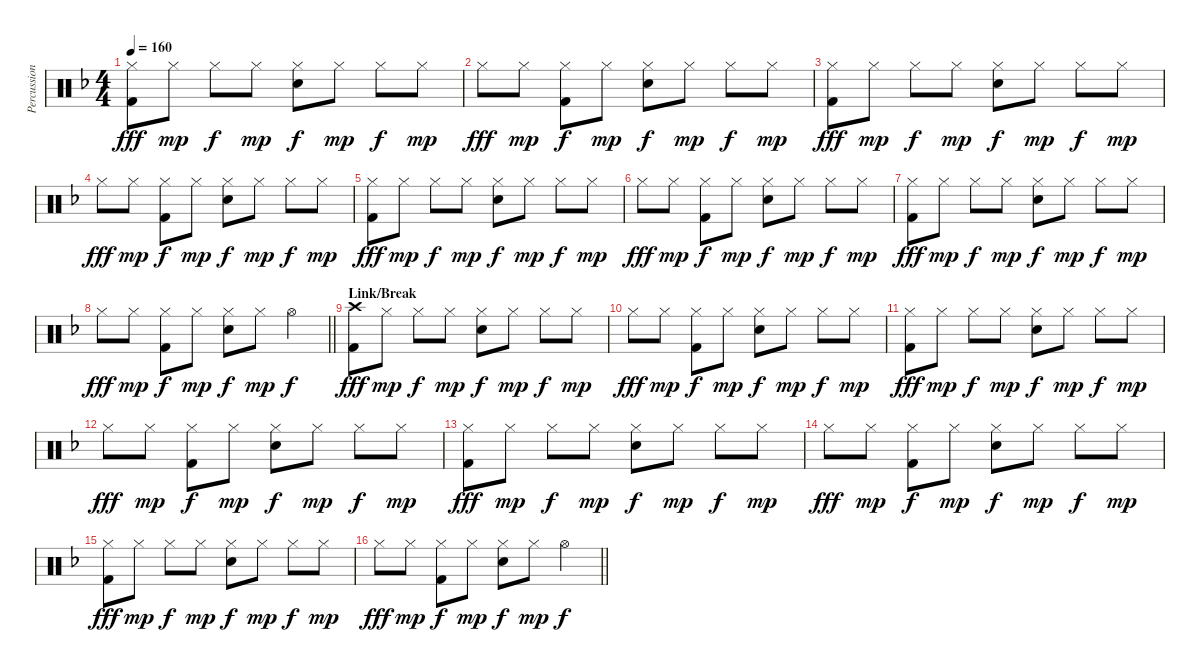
\track ("Percussion" "Percussion") {instrument percussion}
\staff {score}
\articulation defaults
\ts (4 4)
\tempo 160
\clef neutral
\ks f
("Hi-Hat (closed)" "Kick (hit) 2").8{dy fff} "Hi-Hat (closed)".8{dy mp} "Hi-Hat (closed)".8{dy f} "Hi-Hat (closed)".8{dy mp} ("Hi-Hat (closed)" "Electric Snare (hit)").8{dy f} "Hi-Hat (closed)".8{dy mp} "Hi-Hat (closed)".8{dy f} "Hi-Hat (closed)".8{dy mp} |
"Hi-Hat (closed)".8{dy fff} "Hi-Hat (closed)".8{dy mp} ("Hi-Hat (closed)" "Kick (hit) 2").8{dy f} "Hi-Hat (closed)".8{dy mp} ("Hi-Hat (closed)" "Electric Snare (hit)").8{dy f} "Hi-Hat (closed)".8{dy mp} "Hi-Hat (closed)".8{dy f} "Hi-Hat (closed)".8{dy mp} |
("Hi-Hat (closed)" "Kick (hit) 2").8{dy fff} "Hi-Hat (closed)".8{dy mp} "Hi-Hat (closed)".8{dy f} "Hi-Hat (closed)".8{dy mp} ("Hi-Hat (closed)" "Electric Snare (hit)").8{dy f} "Hi-Hat (closed)".8{dy mp} "Hi-Hat (closed)".8{dy f} "Hi-Hat (closed)".8{dy mp} |
"Hi-Hat (closed)".8{dy fff} "Hi-Hat (closed)".8{dy mp} ("Hi-Hat (closed)" "Kick (hit) 2").8{dy f} "Hi-Hat (closed)".8{dy mp} ("Hi-Hat (closed)" "Electric Snare (hit)").8{dy f} "Hi-Hat (closed)".8{dy mp} "Hi-Hat (closed)".8{dy f} "Hi-Hat (closed)".8{dy mp} |
("Hi-Hat (closed)" "Kick (hit) 2").8{dy fff} "Hi-Hat (closed)".8{dy mp} "Hi-Hat (closed)".8{dy f} "Hi-Hat (closed)".8{dy mp} ("Hi-Hat (closed)" "Electric Snare (hit)").8{dy f} "Hi-Hat (closed)".8{dy mp} "Hi-Hat (closed)".8{dy f} "Hi-Hat (closed)".8{dy mp} |
"Hi-Hat (closed)".8{dy fff} "Hi-Hat (closed)".8{dy mp} ("Hi-Hat (closed)" "Kick (hit) 2").8{dy f} "Hi-Hat (closed)".8{dy mp} ("Hi-Hat (closed)" "Electric Snare (hit)").8{dy f} "Hi-Hat (closed)".8{dy mp} "Hi-Hat (closed)".8{dy f} "Hi-Hat (closed)".8{dy mp} |
("Hi-Hat (closed)" "Kick (hit) 2").8{dy fff} "Hi-Hat (closed)".8{dy mp} "Hi-Hat (closed)".8{dy f} "Hi-Hat (closed)".8{dy mp} ("Hi-Hat (closed)" "Electric Snare (hit)").8{dy f} "Hi-Hat (closed)".8{dy mp} "Hi-Hat (closed)".8{dy f} "Hi-Hat (closed)".8{dy mp} |
\barLineRight lightlight "Hi-Hat (closed)".8{dy fff} "Hi-Hat (closed)".8{dy mp}
("Hi-Hat (closed)" "Kick (hit) 2").8{dy f} "Hi-Hat (closed)".8{dy mp} ("Hi-Hat (closed)" "Electric Snare (hit)").8{dy f} "Hi-Hat (closed)".8{dy mp} "Hi-Hat (open)".4{dy f} |
\section ("" "Link/Break")
("Crash high (hit)" "Kick (hit) 2").8{dy fff} "Hi-Hat (closed)".8{dy mp} "Hi-Hat (closed)".8{dy f} "Hi-Hat (closed)".8{dy mp} ("Hi-Hat (closed)" "Electric Snare (hit)").8{dy f} "Hi-Hat (closed)".8{dy mp} "Hi-Hat (closed)".8{dy f} "Hi-Hat (closed)".8{dy mp} |
"Hi-Hat (closed)".8{dy fff} "Hi-Hat (closed)".8{dy mp} ("Hi-Hat (closed)" "Kick (hit) 2").8{dy f} "Hi-Hat (closed)".8{dy mp} ("Hi-Hat (closed)" "Electric Snare (hit)").8{dy f} "Hi-Hat (closed)".8{dy mp} "Hi-Hat (closed)".8{dy f} "Hi-Hat (closed)".8{dy mp} |
("Hi-Hat (closed)" "Kick (hit) 2").8{dy fff} "Hi-Hat (closed)".8{dy mp} "Hi-Hat (closed)".8{dy f} "Hi-Hat (closed)".8{dy mp} ("Hi-Hat (closed)" "Electric Snare (hit)").8{dy f} "Hi-Hat (closed)".8{dy mp} "Hi-Hat (closed)".8{dy f} "Hi-Hat (closed)".8{dy mp} |
"Hi-Hat (closed)".8{dy fff} "Hi-Hat (closed)".8{dy mp} ("Hi-Hat (closed)" "Kick (hit) 2").8{dy f} "Hi-Hat (closed)".8{dy mp} ("Hi-Hat (closed)" "Electric Snare (hit)").8{dy f} "Hi-Hat (closed)".8{dy mp} "Hi-Hat (closed)".8{dy f} "Hi-Hat (closed)".8{dy mp} |
("Hi-Hat (closed)" "Kick (hit) 2").8{dy fff} "Hi-Hat (closed)".8{dy mp} "Hi-Hat (closed)".8{dy f} "Hi-Hat (closed)".8{dy mp} ("Hi-Hat (closed)" "Electric Snare (hit)").8{dy f} "Hi-Hat (closed)".8{dy mp} "Hi-Hat (closed)".8{dy f} "Hi-Hat (closed)".8{dy mp} |
"Hi-Hat (closed)".8{dy fff} "Hi-Hat (closed)".8{dy mp} ("Hi-Hat (closed)" "Kick (hit) 2").8{dy f} "Hi-Hat (closed)".8{dy mp} ("Hi-Hat (closed)" "Electric Snare (hit)").8{dy f} "Hi-Hat (closed)".8{dy mp} "Hi-Hat (closed)".8{dy f} "Hi-Hat (closed)".8{dy mp} |
("Hi-Hat (closed)" "Kick (hit) 2").8{dy fff} "Hi-Hat (closed)".8{dy mp} "Hi-Hat (closed)".8{dy f} "Hi-Hat (closed)".8{dy mp} ("Hi-Hat (closed)" "Electric Snare (hit)").8{dy f} "Hi-Hat (closed)".8{dy mp} "Hi-Hat (closed)".8{dy f} "Hi-Hat (closed)".8{dy mp} |
\barLineRight lightlight "Hi-Hat (closed)".8{dy fff} "Hi-Hat (closed)".8{dy mp}
("Hi-Hat (closed)" "Kick (hit) 2").8{dy f} "Hi-Hat (closed)".8{dy mp} ("Hi-Hat (closed)" "Electric Snare (hit)").8{dy f} "Hi-Hat (closed)".8{dy mp} "Hi-Hat (open)".4{dy f}
